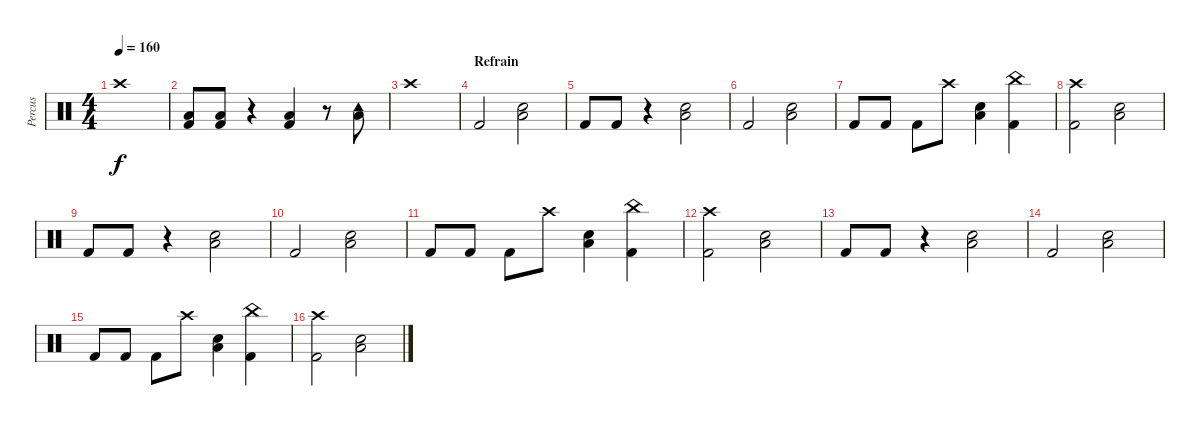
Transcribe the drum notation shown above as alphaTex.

\track ("Percus" "Percus") {instrument percussion}
\staff {score}
\articulation defaults
\ts (4 4)
\tempo 160
\clef neutral
\ks c "Crash high (hit)".1{dy f}
|
("Kick (hit) 2" "Low Tom (hit)").8 ("Kick (hit) 2" "Low Tom (hit)").8 r.4 ("Kick (hit) 2" "Low Tom (hit)").4 r.8 ("Tambourine (hit)" "Low Floor Tom (hit)").8 |
"Crash high (hit)".1 |
\section ("" "Refrain")
"Kick (hit) 2".2 ("Snare (hit) 2" "Low Floor Tom (hit)").2 |
"Kick (hit) 2".8 "Kick (hit) 2".8 r.4 ("Snare (hit) 2" "Low Floor Tom (hit)").2 |
"Kick (hit) 2".2 ("Snare (hit) 2" "Low Floor Tom (hit)").2 |
"Kick (hit) 2".8 "Kick (hit) 2".8 "Kick (hit) 2".8 "Crash high (hit)".8 ("Snare (hit) 2" "Low Floor Tom (hit)").4 ("China (hit)" "Kick (hit) 2").4 |
("Crash high (hit)" "Kick (hit) 2").2 ("Snare (hit) 2" "Low Floor Tom (hit)").2 |
"Kick (hit) 2".8 "Kick (hit) 2".8 r.4 ("Snare (hit) 2" "Low Floor Tom (hit)").2 |
"Kick (hit) 2".2 ("Snare (hit) 2" "Low Floor Tom (hit)").2 |
"Kick (hit) 2".8 "Kick (hit) 2".8 "Kick (hit) 2".8 "Crash high (hit)".8 ("Snare (hit) 2" "Low Floor Tom (hit)").4 ("China (hit)" "Kick (hit) 2").4 |
("Crash high (hit)" "Kick (hit) 2").2 ("Snare (hit) 2" "Low Floor Tom (hit)").2 |
"Kick (hit) 2".8 "Kick (hit) 2".8 r.4 ("Snare (hit) 2" "Low Floor Tom (hit)").2 |
"Kick (hit) 2".2 ("Snare (hit) 2" "Low Floor Tom (hit)").2 |
"Kick (hit) 2".8 "Kick (hit) 2".8 "Kick (hit) 2".8 "Crash high (hit)".8 ("Snare (hit) 2" "Low Floor Tom (hit)").4 ("China (hit)" "Kick (hit) 2").4 |
("Crash high (hit)" "Kick (hit) 2").2 ("Snare (hit) 2" "Low Floor Tom (hit)").2
